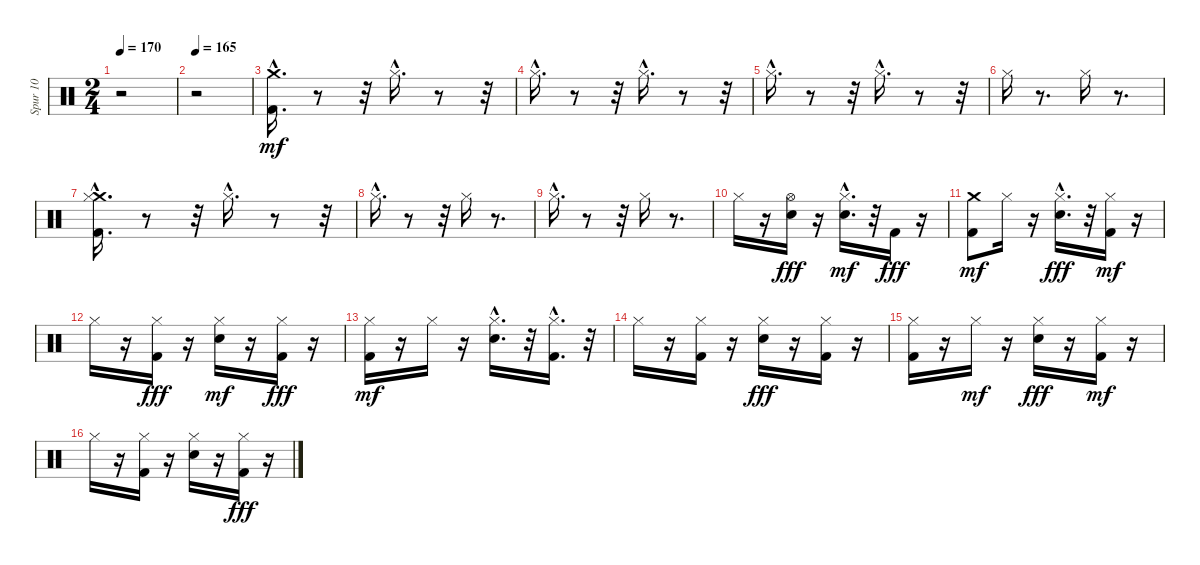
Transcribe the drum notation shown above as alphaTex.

\track ("Spur 10" "Spur 10") {instrument percussion}
\staff {score}
\articulation defaults
\ts (2 4)
\tempo 170
\clef neutral
\ks c
r.2{dy mf} |
\tempo 165
r.2 |
("Kick (hit) 2"{hac} "Crash medium (hit)").16{d} r.8 r.32 "Hi-Hat (closed)"{hac}.16{d} r.8 r.32 |
"Hi-Hat (closed)"{hac}.16{d} r.8 r.32 "Hi-Hat (closed)"{hac}.16{d} r.8 r.32 |
"Hi-Hat (closed)"{hac}.16{d} r.8 r.32 "Hi-Hat (closed)"{hac}.16{d} r.8 r.32 |
"Hi-Hat (closed)".16 r.8{d} "Hi-Hat (closed)".16 r.8{d} |
("Crash medium (hit)" "Kick (hit) 2"{hac} "Hi-Hat (closed)"{hac}).16{d} r.8 r.32 "Hi-Hat (closed)"{hac}.16{d} r.8 r.32 |
"Hi-Hat (closed)"{hac}.16{d} r.8 r.32 "Hi-Hat (closed)".16 r.8{d} |
"Hi-Hat (closed)"{hac}.16{d} r.8 r.32 "Hi-Hat (closed)".16 r.8{d} |
"Hi-Hat (closed)".16 r.16 ("Hi-Hat (open)" "Electric Snare (hit)").16{dy fff} r.16 ("Electric Snare (hit)"{hac} "Hi-Hat (closed)").16{d dy mf} r.32 "Kick (hit) 2".16{dy fff} r.16 |
("Kick (hit) 2" "Crash medium (hit)").8{dy mf} "Hi-Hat (closed)".16 r.16 ("Hi-Hat (closed)" "Electric Snare (hit)"{hac}).16{d dy fff} r.32 ("Kick (hit) 2" "Hi-Hat (closed)").16{dy mf} r.16 |
"Hi-Hat (closed)".16 r.16 ("Hi-Hat (closed)" "Kick (hit) 2").16{dy fff} r.16 ("Electric Snare (hit)" "Hi-Hat (closed)").16{dy mf} r.16 ("Hi-Hat (closed)" "Kick (hit) 2").16{dy fff} r.16 |
("Kick (hit) 2" "Hi-Hat (closed)").16{dy mf} r.16 "Hi-Hat (closed)".16 r.16 ("Electric Snare (hit)"{hac} "Hi-Hat (closed)").16{d} r.32 ("Kick (hit) 2"{hac} "Hi-Hat (closed)").16{d} r.32 |
"Hi-Hat (closed)".16 r.16 ("Kick (hit) 2" "Hi-Hat (closed)").16 r.16 ("Hi-Hat (closed)" "Electric Snare (hit)").16{dy fff} r.16 ("Hi-Hat (closed)" "Kick (hit) 2").16 r.16 |
("Hi-Hat (closed)" "Kick (hit) 2").16 r.16 "Hi-Hat (closed)".16{dy mf} r.16 ("Hi-Hat (closed)" "Electric Snare (hit)").16{dy fff} r.16 ("Kick (hit) 2" "Hi-Hat (closed)").16{dy mf} r.16 |
"Hi-Hat (closed)".16 r.16 ("Kick (hit) 2" "Hi-Hat (closed)").16 r.16 ("Electric Snare (hit)" "Hi-Hat (closed)").16 r.16 ("Hi-Hat (closed)" "Kick (hit) 2").16{dy fff} r.16
